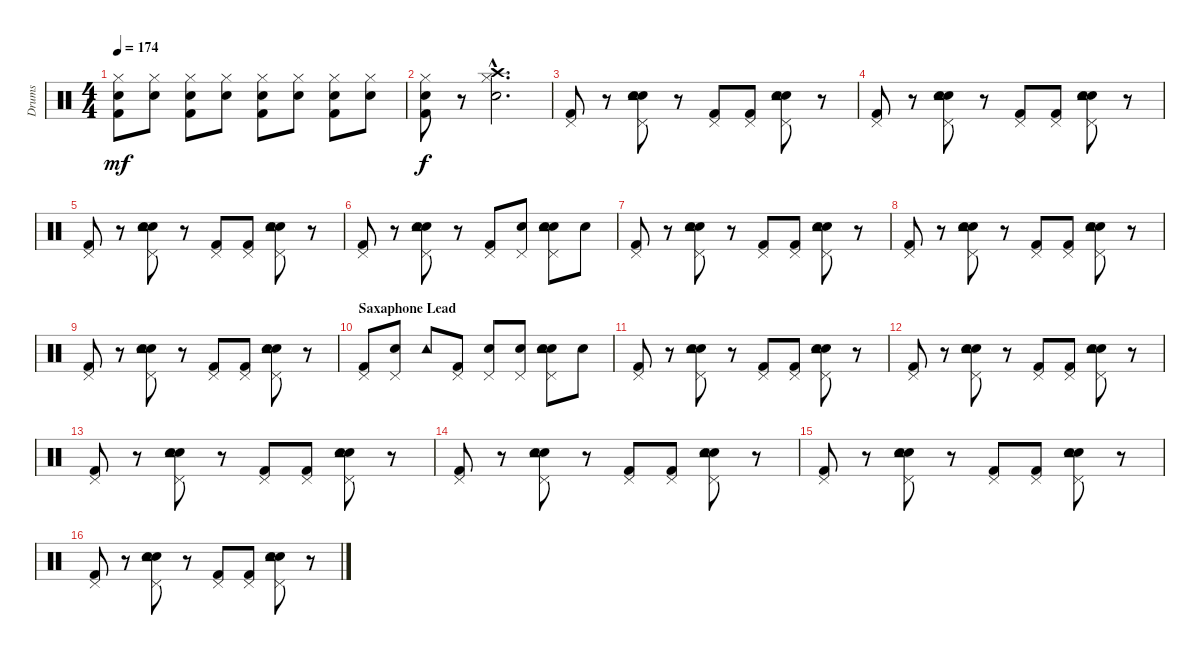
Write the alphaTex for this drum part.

\track ("Drums" "Drums") {instrument percussion}
\staff {score}
\articulation defaults
\ts (4 4)
\tempo 174
\clef neutral
\ks c
("Kick (hit) 2" "Snare (hit) 2" "Hi-Hat (closed)").8{dy mf} ("Snare (hit) 2" "Hi-Hat (closed)").8 ("Kick (hit) 2" "Snare (hit) 2" "Hi-Hat (closed)").8 ("Snare (hit) 2" "Hi-Hat (closed)").8 ("Kick (hit) 2" "Snare (hit) 2" "Hi-Hat (closed)").8 ("Snare (hit) 2" "Hi-Hat (closed)").8 ("Kick (hit) 2" "Snare (hit) 2" "Hi-Hat (closed)").8 ("Snare (hit) 2" "Hi-Hat (closed)").8 |
("Kick (hit) 2" "Snare (hit) 2" "Hi-Hat (closed)").8{dy f} r.8 ("Snare (hit) 2"{hac} "Hi-Hat (closed)"{hac} "Crash high (hit)"{hac}).2{d} |
("Kick (hit) 2" "Pedal Hi-Hat (hit)").8 r.8 ("Snare (hit) 2" "Pedal Hi-Hat (hit)" "Hand Clap (hit)" "Tambourine (hit)").8 r.8 ("Kick (hit) 2" "Pedal Hi-Hat (hit)").8 ("Kick (hit) 2" "Pedal Hi-Hat (hit)").8 ("Snare (hit) 2" "Pedal Hi-Hat (hit)" "Hand Clap (hit)" "Tambourine (hit)").8 r.8 |
("Kick (hit) 2" "Pedal Hi-Hat (hit)").8 r.8 ("Snare (hit) 2" "Pedal Hi-Hat (hit)" "Hand Clap (hit)" "Tambourine (hit)").8 r.8 ("Kick (hit) 2" "Pedal Hi-Hat (hit)").8 ("Kick (hit) 2" "Pedal Hi-Hat (hit)").8 ("Snare (hit) 2" "Pedal Hi-Hat (hit)" "Hand Clap (hit)" "Tambourine (hit)").8 r.8 |
("Kick (hit) 2" "Pedal Hi-Hat (hit)").8 r.8 ("Snare (hit) 2" "Pedal Hi-Hat (hit)" "Hand Clap (hit)" "Tambourine (hit)").8 r.8 ("Kick (hit) 2" "Pedal Hi-Hat (hit)").8 ("Kick (hit) 2" "Pedal Hi-Hat (hit)").8 ("Snare (hit) 2" "Pedal Hi-Hat (hit)" "Hand Clap (hit)" "Tambourine (hit)").8 r.8 |
("Kick (hit) 2" "Pedal Hi-Hat (hit)").8 r.8 ("Snare (hit) 2" "Pedal Hi-Hat (hit)" "Hand Clap (hit)" "Tambourine (hit)").8 r.8 ("Kick (hit) 2" "Pedal Hi-Hat (hit)").8 ("Snare (hit) 2" "Pedal Hi-Hat (hit)").8 ("Snare (hit) 2" "Pedal Hi-Hat (hit)" "Hand Clap (hit)" "Tambourine (hit)").8 "Snare (hit) 2".8 |
("Kick (hit) 2" "Pedal Hi-Hat (hit)").8 r.8 ("Snare (hit) 2" "Pedal Hi-Hat (hit)" "Hand Clap (hit)" "Tambourine (hit)").8 r.8 ("Kick (hit) 2" "Pedal Hi-Hat (hit)").8 ("Kick (hit) 2" "Pedal Hi-Hat (hit)").8 ("Snare (hit) 2" "Pedal Hi-Hat (hit)" "Hand Clap (hit)" "Tambourine (hit)").8 r.8 |
("Kick (hit) 2" "Pedal Hi-Hat (hit)").8 r.8 ("Snare (hit) 2" "Pedal Hi-Hat (hit)" "Hand Clap (hit)" "Tambourine (hit)").8 r.8 ("Kick (hit) 2" "Pedal Hi-Hat (hit)").8 ("Kick (hit) 2" "Pedal Hi-Hat (hit)").8 ("Snare (hit) 2" "Pedal Hi-Hat (hit)" "Hand Clap (hit)" "Tambourine (hit)").8 r.8 |
("Kick (hit) 2" "Pedal Hi-Hat (hit)").8 r.8 ("Snare (hit) 2" "Pedal Hi-Hat (hit)" "Hand Clap (hit)" "Tambourine (hit)").8 r.8 ("Kick (hit) 2" "Pedal Hi-Hat (hit)").8 ("Kick (hit) 2" "Pedal Hi-Hat (hit)").8 ("Snare (hit) 2" "Pedal Hi-Hat (hit)" "Hand Clap (hit)" "Tambourine (hit)").8 r.8 |
\section ("" "Saxaphone Lead")
("Kick (hit) 2" "Pedal Hi-Hat (hit)").8 ("Snare (hit) 2" "Pedal Hi-Hat (hit)").8 "Tambourine (hit)".8 ("Kick (hit) 2" "Pedal Hi-Hat (hit)").8 ("Snare (hit) 2" "Pedal Hi-Hat (hit)").8 ("Snare (hit) 2" "Pedal Hi-Hat (hit)").8 ("Snare (hit) 2" "Pedal Hi-Hat (hit)" "Hand Clap (hit)" "Tambourine (hit)").8 "Snare (hit) 2".8 |
("Kick (hit) 2" "Pedal Hi-Hat (hit)").8 r.8 ("Snare (hit) 2" "Pedal Hi-Hat (hit)" "Hand Clap (hit)" "Tambourine (hit)").8 r.8 ("Kick (hit) 2" "Pedal Hi-Hat (hit)").8 ("Kick (hit) 2" "Pedal Hi-Hat (hit)").8 ("Snare (hit) 2" "Pedal Hi-Hat (hit)" "Hand Clap (hit)" "Tambourine (hit)").8 r.8 |
("Kick (hit) 2" "Pedal Hi-Hat (hit)").8 r.8 ("Snare (hit) 2" "Pedal Hi-Hat (hit)" "Hand Clap (hit)" "Tambourine (hit)").8 r.8 ("Kick (hit) 2" "Pedal Hi-Hat (hit)").8 ("Kick (hit) 2" "Pedal Hi-Hat (hit)").8 ("Snare (hit) 2" "Pedal Hi-Hat (hit)" "Hand Clap (hit)" "Tambourine (hit)").8 r.8 |
("Kick (hit) 2" "Pedal Hi-Hat (hit)").8 r.8 ("Snare (hit) 2" "Pedal Hi-Hat (hit)" "Hand Clap (hit)" "Tambourine (hit)").8 r.8 ("Kick (hit) 2" "Pedal Hi-Hat (hit)").8 ("Kick (hit) 2" "Pedal Hi-Hat (hit)").8 ("Snare (hit) 2" "Pedal Hi-Hat (hit)" "Hand Clap (hit)" "Tambourine (hit)").8 r.8 |
("Kick (hit) 2" "Pedal Hi-Hat (hit)").8 r.8 ("Snare (hit) 2" "Pedal Hi-Hat (hit)" "Hand Clap (hit)" "Tambourine (hit)").8 r.8 ("Kick (hit) 2" "Pedal Hi-Hat (hit)").8 ("Kick (hit) 2" "Pedal Hi-Hat (hit)").8 ("Snare (hit) 2" "Pedal Hi-Hat (hit)" "Hand Clap (hit)" "Tambourine (hit)").8 r.8 |
("Kick (hit) 2" "Pedal Hi-Hat (hit)").8 r.8 ("Snare (hit) 2" "Pedal Hi-Hat (hit)" "Hand Clap (hit)" "Tambourine (hit)").8 r.8 ("Kick (hit) 2" "Pedal Hi-Hat (hit)").8 ("Kick (hit) 2" "Pedal Hi-Hat (hit)").8 ("Snare (hit) 2" "Pedal Hi-Hat (hit)" "Hand Clap (hit)" "Tambourine (hit)").8 r.8 |
("Kick (hit) 2" "Pedal Hi-Hat (hit)").8 r.8 ("Snare (hit) 2" "Pedal Hi-Hat (hit)" "Hand Clap (hit)" "Tambourine (hit)").8 r.8 ("Kick (hit) 2" "Pedal Hi-Hat (hit)").8 ("Kick (hit) 2" "Pedal Hi-Hat (hit)").8 ("Snare (hit) 2" "Pedal Hi-Hat (hit)" "Hand Clap (hit)" "Tambourine (hit)").8 r.8
